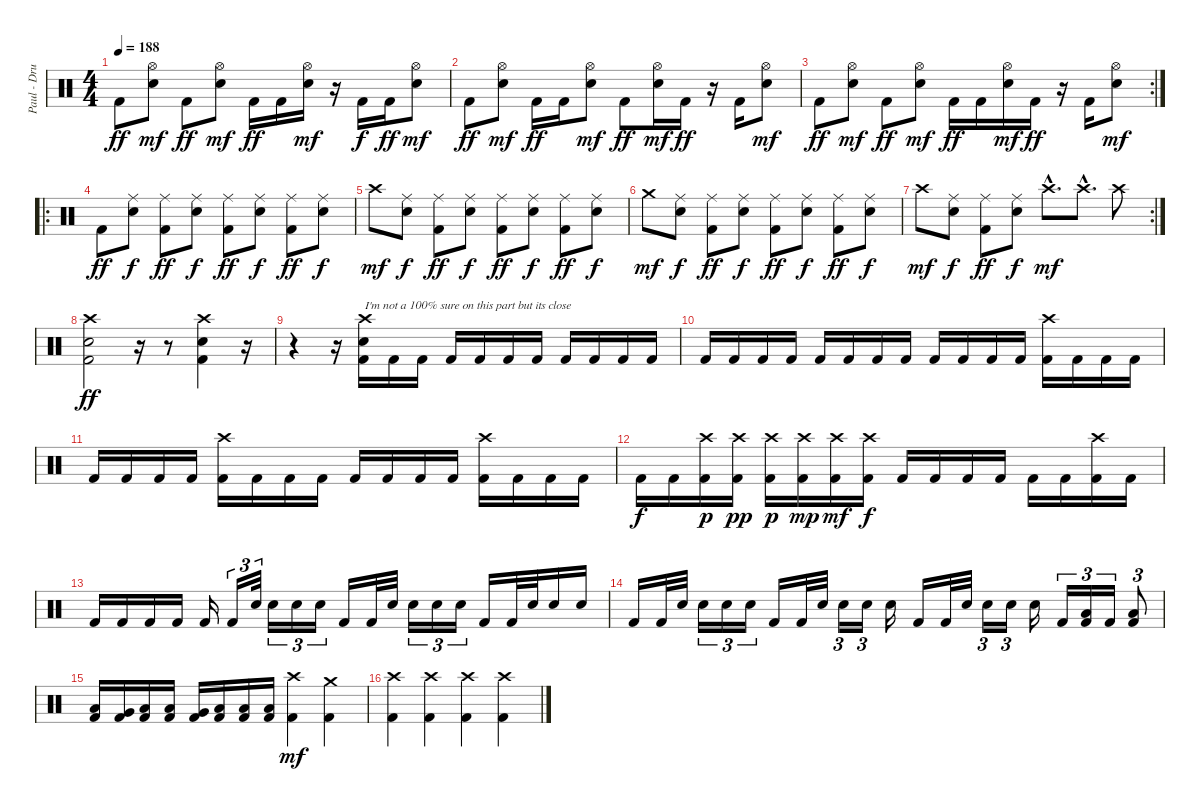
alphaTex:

\track ("Paul - Drums" "Paul - Dru") {instrument percussion}
\staff {score}
\articulation defaults
\ts (4 4)
\tempo 188
\clef neutral
\ks c "Kick (hit) 2".8{dy ff}
("Hi-Hat (open)" "Electric Snare (hit)").8{dy mf} "Kick (hit) 2".8{dy ff} ("Hi-Hat (open)" "Electric Snare (hit)").8{dy mf} "Kick (hit) 2".16{dy ff} "Kick (hit) 2".16 ("Hi-Hat (open)" "Electric Snare (hit)").16{dy mf} r.16 "Kick (hit) 2".16{dy f} "Kick (hit) 2".16{dy ff} ("Hi-Hat (open)" "Electric Snare (hit)").8{dy mf} |
"Kick (hit) 2".8{dy ff} ("Hi-Hat (open)" "Electric Snare (hit)").8{dy mf} "Kick (hit) 2".16{dy ff} "Kick (hit) 2".16 ("Hi-Hat (open)" "Electric Snare (hit)").8{dy mf} "Kick (hit) 2".8{dy ff} ("Hi-Hat (open)" "Electric Snare (hit)").16{dy mf} "Kick (hit) 2".16{dy ff} r.16 "Kick (hit) 2".16 ("Hi-Hat (open)" "Electric Snare (hit)").8{dy mf} |
\rc 2 "Kick (hit) 2".8{dy ff}
("Hi-Hat (open)" "Electric Snare (hit)").8{dy mf} "Kick (hit) 2".8{dy ff} ("Hi-Hat (open)" "Electric Snare (hit)").8{dy mf} "Kick (hit) 2".16{dy ff} "Kick (hit) 2".16 ("Hi-Hat (open)" "Electric Snare (hit)").16{dy mf} "Kick (hit) 2".16{dy ff} r.16 "Kick (hit) 2".16 ("Hi-Hat (open)" "Electric Snare (hit)").8{dy mf} |
\ro "Kick (hit) 2".8{dy ff}
("Ride (middle)" "Electric Snare (hit)").8{dy f} ("Ride (middle)" "Kick (hit) 2").8{dy ff} ("Ride (middle)" "Electric Snare (hit)").8{dy f} ("Ride (middle)" "Kick (hit) 2").8{dy ff} ("Ride (middle)" "Electric Snare (hit)").8{dy f} ("Ride (middle)" "Kick (hit) 2").8{dy ff} ("Ride (middle)" "Electric Snare (hit)").8{dy f} |
"Crash high (hit)".8{dy mf} ("Ride (middle)" "Electric Snare (hit)").8{dy f} ("Ride (middle)" "Kick (hit) 2").8{dy ff} ("Ride (middle)" "Electric Snare (hit)").8{dy f} ("Ride (middle)" "Kick (hit) 2").8{dy ff} ("Ride (middle)" "Electric Snare (hit)").8{dy f} ("Ride (middle)" "Kick (hit) 2").8{dy ff} ("Ride (middle)" "Electric Snare (hit)").8{dy f} |
"Crash medium (hit)".8{dy mf} ("Ride (middle)" "Electric Snare (hit)").8{dy f} ("Ride (middle)" "Kick (hit) 2").8{dy ff} ("Ride (middle)" "Electric Snare (hit)").8{dy f} ("Ride (middle)" "Kick (hit) 2").8{dy ff} ("Ride (middle)" "Electric Snare (hit)").8{dy f} ("Ride (middle)" "Kick (hit) 2").8{dy ff} ("Ride (middle)" "Electric Snare (hit)").8{dy f} |
\rc 2 "Crash high (hit)".8{dy mf}
("Ride (middle)" "Electric Snare (hit)").8{dy f} ("Ride (middle)" "Kick (hit) 2").8{dy ff} ("Ride (middle)" "Electric Snare (hit)").8{dy f} "Crash high (hit)"{hac}.8{d dy mf} "Crash high (hit)"{hac}.8{d} "Crash high (hit)".8 |
("Crash high (hit)" "Electric Snare (hit)" "Kick (hit) 2").2{dy ff} r.16 r.8 ("Crash high (hit)" "Electric Snare (hit)" "Kick (hit) 2").4 r.16 |
r.4 r.16 ("Crash high (hit)" "Electric Snare (hit)" "Kick (hit) 2").16{txt "I'm not a 100% sure on this part but its close"} "Kick (hit) 2".16 "Kick (hit) 2".16 "Kick (hit) 2".16 "Kick (hit) 2".16 "Kick (hit) 2".16 "Kick (hit) 2".16 "Kick (hit) 2".16 "Kick (hit) 2".16 "Kick (hit) 2".16 "Kick (hit) 2".16 |
"Kick (hit) 2".16 "Kick (hit) 2".16 "Kick (hit) 2".16 "Kick (hit) 2".16 "Kick (hit) 2".16 "Kick (hit) 2".16 "Kick (hit) 2".16 "Kick (hit) 2".16 "Kick (hit) 2".16 "Kick (hit) 2".16 "Kick (hit) 2".16 "Kick (hit) 2".16 ("Crash high (hit)" "Kick (hit) 2").16 "Kick (hit) 2".16 "Kick (hit) 2".16 "Kick (hit) 2".16 |
"Kick (hit) 2".16 "Kick (hit) 2".16 "Kick (hit) 2".16 "Kick (hit) 2".16 ("Crash high (hit)" "Kick (hit) 2").16 "Kick (hit) 2".16 "Kick (hit) 2".16 "Kick (hit) 2".16 "Kick (hit) 2".16 "Kick (hit) 2".16 "Kick (hit) 2".16 "Kick (hit) 2".16 ("Crash high (hit)" "Kick (hit) 2").16 "Kick (hit) 2".16 "Kick (hit) 2".16 "Kick (hit) 2".16 |
"Kick (hit) 2".16{dy f} "Kick (hit) 2".16 ("Crash high (hit)" "Kick (hit) 2").16{dy p} ("Crash high (hit)" "Kick (hit) 2").16{dy pp} ("Crash high (hit)" "Kick (hit) 2").16{dy p} ("Crash high (hit)" "Kick (hit) 2").16{dy mp} ("Crash high (hit)" "Kick (hit) 2").16{dy mf} ("Crash high (hit)" "Kick (hit) 2").16{dy f} "Kick (hit) 2".16 "Kick (hit) 2".16 "Kick (hit) 2".16 "Kick (hit) 2".16 "Kick (hit) 2".16 "Kick (hit) 2".16 ("Crash high (hit)" "Kick (hit) 2").16 "Kick (hit) 2".16 |
"Kick (hit) 2".16 "Kick (hit) 2".16 "Kick (hit) 2".16 "Kick (hit) 2".16 "Kick (hit) 2".16 "Kick (hit) 2".16{tu (3 2)} "Electric Snare (hit)".32{tu (3 2)} "Electric Snare (hit)".16{tu (3 2)} "Electric Snare (hit)".16{tu (3 2)} "Electric Snare (hit)".16{tu (3 2)} "Kick (hit) 2".16 "Kick (hit) 2".32 "Electric Snare (hit)".32 "Electric Snare (hit)".16{tu (3 2)} "Electric Snare (hit)".16{tu (3 2)} "Electric Snare (hit)".16{tu (3 2)} "Kick (hit) 2".16 "Kick (hit) 2".32 "Electric Snare (hit)".32 "Electric Snare (hit)".16 "Electric Snare (hit)".16 |
"Kick (hit) 2".16 "Kick (hit) 2".32 "Electric Snare (hit)".32 "Electric Snare (hit)".16{tu (3 2)} "Electric Snare (hit)".16{tu (3 2)} "Electric Snare (hit)".16{tu (3 2)} "Kick (hit) 2".16 "Kick (hit) 2".32 "Electric Snare (hit)".32 "Electric Snare (hit)".16{tu (3 2)} "Electric Snare (hit)".16{tu (3 2)} "Electric Snare (hit)".16 "Kick (hit) 2".16 "Kick (hit) 2".32 "Electric Snare (hit)".32 "Electric Snare (hit)".16{tu (3 2)} "Electric Snare (hit)".16{tu (3 2)} "Electric Snare (hit)".16 "Kick (hit) 2".16{tu (3 2)} ("Low Tom (hit)" "Kick (hit) 2").16{tu (3 2)} "Kick (hit) 2".16{tu (3 2)} ("Low Tom (hit)" "Kick (hit) 2").8{tu (3 2)} |
("Low Tom (hit)" "Kick (hit) 2").16 ("Very Low Tom (hit)" "Kick (hit) 2").16 ("Low Floor Tom (hit)" "Kick (hit) 2").16 ("Low Tom (hit)" "Kick (hit) 2").16 ("Very Low Tom (hit)" "Kick (hit) 2").16 ("Low Floor Tom (hit)" "Kick (hit) 2").16 ("Low Floor Tom (hit)" "Kick (hit) 2").16 ("Low Floor Tom (hit)" "Kick (hit) 2").16 ("Crash high (hit)" "Kick (hit) 2").4{dy mf} ("Crash medium (hit)" "Kick (hit) 2").4 |
("Crash high (hit)" "Kick (hit) 2").4 ("Crash high (hit)" "Kick (hit) 2").4 ("Crash high (hit)" "Kick (hit) 2").4 ("Crash high (hit)" "Kick (hit) 2").4
